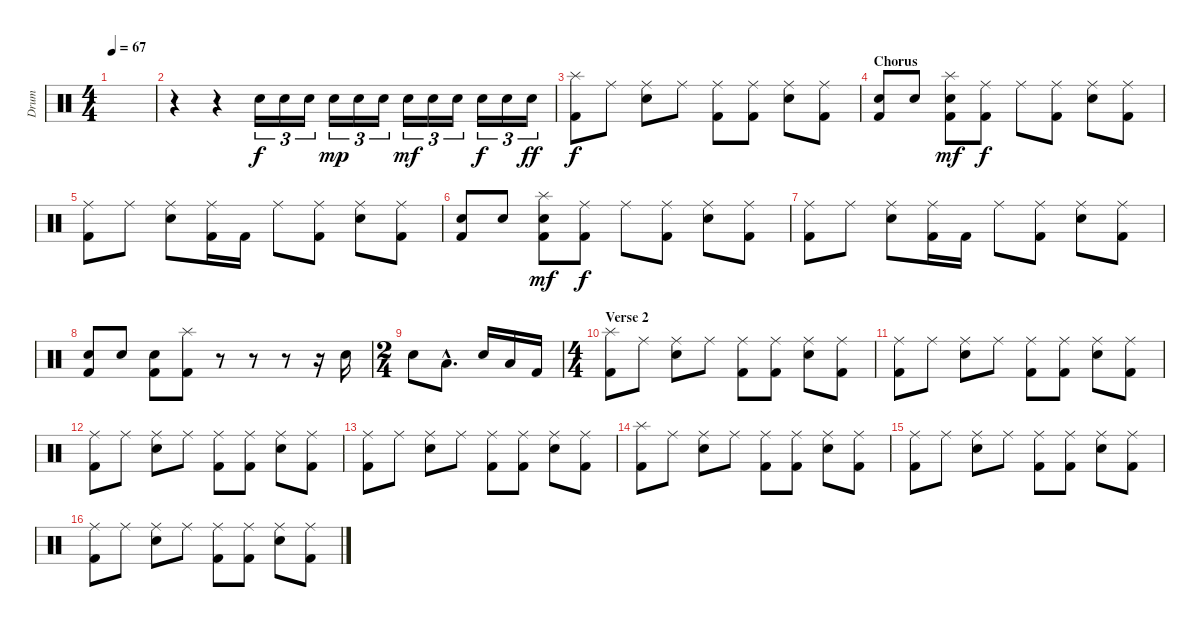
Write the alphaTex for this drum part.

\track ("Drum" "Drum") {instrument percussion}
\staff {score}
\articulation defaults
\ts (4 4)
\tempo 67
\clef neutral
\ks c
|
r.4 r.4 "Electric Snare (hit)".16{tu (3 2)} "Electric Snare (hit)".16{tu (3 2)} "Electric Snare (hit)".16{tu (3 2)} "Electric Snare (hit)".16{tu (3 2) dy mp} "Electric Snare (hit)".16{tu (3 2)} "Electric Snare (hit)".16{tu (3 2)} "Electric Snare (hit)".16{tu (3 2) dy mf} "Electric Snare (hit)".16{tu (3 2)} "Electric Snare (hit)".16{tu (3 2)} "Electric Snare (hit)".16{tu (3 2) dy f} "Electric Snare (hit)".16{tu (3 2)} "Electric Snare (hit)".16{tu (3 2) dy ff} |
("Splash (hit)" "Kick (hit) 2").8{dy f} "Ride (middle)".8 ("Ride (middle)" "Electric Snare (hit)").8 "Ride (middle)".8 ("Ride (middle)" "Kick (hit) 2").8 ("Ride (middle)" "Kick (hit) 2").8 ("Ride (middle)" "Electric Snare (hit)").8 ("Ride (middle)" "Kick (hit) 2").8 |
\section ("" "Chorus")
("Electric Snare (hit)" "Kick (hit) 2").8 "Electric Snare (hit)".8 ("Splash (hit)" "Electric Snare (hit)" "Kick (hit) 2").8{dy mf} ("Ride (middle)" "Kick (hit) 2").8{dy f} "Ride (middle)".8 ("Ride (middle)" "Kick (hit) 2").8 ("Ride (middle)" "Electric Snare (hit)").8 ("Ride (middle)" "Kick (hit) 2").8 |
("Ride (middle)" "Kick (hit) 2").8 "Ride (middle)".8 ("Ride (middle)" "Electric Snare (hit)").8 ("Ride (middle)" "Kick (hit) 2").16 "Kick (hit) 2".16 "Ride (middle)".8 ("Ride (middle)" "Kick (hit) 2").8 ("Ride (middle)" "Electric Snare (hit)").8 ("Ride (middle)" "Kick (hit) 2").8 |
("Electric Snare (hit)" "Kick (hit) 2").8 "Electric Snare (hit)".8 ("Splash (hit)" "Electric Snare (hit)" "Kick (hit) 2").8{dy mf} ("Ride (middle)" "Kick (hit) 2").8{dy f} "Ride (middle)".8 ("Ride (middle)" "Kick (hit) 2").8 ("Ride (middle)" "Electric Snare (hit)").8 ("Ride (middle)" "Kick (hit) 2").8 |
("Ride (middle)" "Kick (hit) 2").8 "Ride (middle)".8 ("Ride (middle)" "Electric Snare (hit)").8 ("Ride (middle)" "Kick (hit) 2").16 "Kick (hit) 2".16 "Ride (middle)".8 ("Ride (middle)" "Kick (hit) 2").8 ("Ride (middle)" "Electric Snare (hit)").8 ("Ride (middle)" "Kick (hit) 2").8 |
("Electric Snare (hit)" "Kick (hit) 2").8 "Electric Snare (hit)".8 ("Electric Snare (hit)" "Kick (hit) 2").8 ("Splash (hit)" "Kick (hit) 2").8 r.8 r.8 r.8 r.16 "Electric Snare (hit)".16 |
\ts (2 4)
"Electric Snare (hit)".8 "Low Tom (hit)"{hac}.8{d} "Electric Snare (hit)".16 "Low Tom (hit)".16 "Kick (hit) 2".16 |
\ts (4 4)
\section ("" "Verse 2")
("Splash (hit)" "Kick (hit) 2").8 "Ride (middle)".8 ("Ride (middle)" "Electric Snare (hit)").8 "Ride (middle)".8 ("Ride (middle)" "Kick (hit) 2").8 ("Ride (middle)" "Kick (hit) 2").8 ("Ride (middle)" "Electric Snare (hit)").8 ("Ride (middle)" "Kick (hit) 2").8 |
("Ride (middle)" "Kick (hit) 2").8 "Ride (middle)".8 ("Ride (middle)" "Electric Snare (hit)").8 "Ride (middle)".8 ("Ride (middle)" "Kick (hit) 2").8 ("Ride (middle)" "Kick (hit) 2").8 ("Ride (middle)" "Electric Snare (hit)").8 ("Ride (middle)" "Kick (hit) 2").8 |
("Ride (middle)" "Kick (hit) 2").8 "Ride (middle)".8 ("Ride (middle)" "Electric Snare (hit)").8 "Ride (middle)".8 ("Ride (middle)" "Kick (hit) 2").8 ("Ride (middle)" "Kick (hit) 2").8 ("Ride (middle)" "Electric Snare (hit)").8 ("Ride (middle)" "Kick (hit) 2").8 |
("Ride (middle)" "Kick (hit) 2").8 "Ride (middle)".8 ("Ride (middle)" "Electric Snare (hit)").8 "Ride (middle)".8 ("Ride (middle)" "Kick (hit) 2").8 ("Ride (middle)" "Kick (hit) 2").8 ("Ride (middle)" "Electric Snare (hit)").8 ("Ride (middle)" "Kick (hit) 2").8 |
("Splash (hit)" "Kick (hit) 2").8 "Ride (middle)".8 ("Ride (middle)" "Electric Snare (hit)").8 "Ride (middle)".8 ("Ride (middle)" "Kick (hit) 2").8 ("Ride (middle)" "Kick (hit) 2").8 ("Ride (middle)" "Electric Snare (hit)").8 ("Ride (middle)" "Kick (hit) 2").8 |
("Ride (middle)" "Kick (hit) 2").8 "Ride (middle)".8 ("Ride (middle)" "Electric Snare (hit)").8 "Ride (middle)".8 ("Ride (middle)" "Kick (hit) 2").8 ("Ride (middle)" "Kick (hit) 2").8 ("Ride (middle)" "Electric Snare (hit)").8 ("Ride (middle)" "Kick (hit) 2").8 |
("Ride (middle)" "Kick (hit) 2").8 "Ride (middle)".8 ("Ride (middle)" "Electric Snare (hit)").8 "Ride (middle)".8 ("Ride (middle)" "Kick (hit) 2").8 ("Ride (middle)" "Kick (hit) 2").8 ("Ride (middle)" "Electric Snare (hit)").8 ("Ride (middle)" "Kick (hit) 2").8
